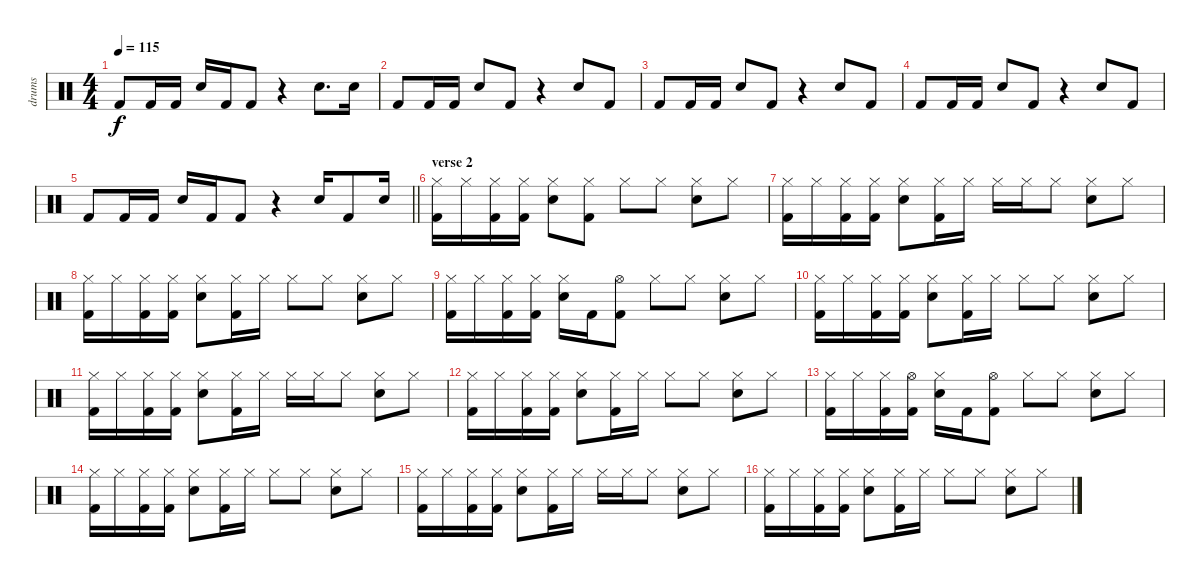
\track ("drums" "drums") {instrument percussion}
\staff {score}
\articulation defaults
\ts (4 4)
\tempo 115
\clef neutral
\ks c "Kick (hit) 2".8{dy f} "Kick (hit) 2".16 "Kick (hit) 2".16 "Snare (hit) 2".16 "Kick (hit) 2".16 "Kick (hit) 2".8
r.4 "Snare (hit) 2".8{d} "Snare (hit) 2".16 |
"Kick (hit) 2".8 "Kick (hit) 2".16 "Kick (hit) 2".16 "Snare (hit) 2".8 "Kick (hit) 2".8 r.4 "Snare (hit) 2".8 "Kick (hit) 2".8 |
"Kick (hit) 2".8 "Kick (hit) 2".16 "Kick (hit) 2".16 "Snare (hit) 2".8 "Kick (hit) 2".8 r.4 "Snare (hit) 2".8 "Kick (hit) 2".8 |
"Kick (hit) 2".8 "Kick (hit) 2".16 "Kick (hit) 2".16 "Snare (hit) 2".8 "Kick (hit) 2".8 r.4 "Snare (hit) 2".8 "Kick (hit) 2".8 |
\barLineRight lightlight "Kick (hit) 2".8 "Kick (hit) 2".16 "Kick (hit) 2".16 "Snare (hit) 2".16 "Kick (hit) 2".16 "Kick (hit) 2".8
r.4 "Snare (hit) 2".16 "Kick (hit) 2".8 "Snare (hit) 2".16 |
\section ("" "verse 2")
("Hi-Hat (closed)" "Kick (hit) 2").16 "Hi-Hat (closed)".16 ("Hi-Hat (closed)" "Kick (hit) 2").16 ("Hi-Hat (closed)" "Kick (hit) 2").16 ("Hi-Hat (closed)" "Snare (hit) 2").8 ("Hi-Hat (closed)" "Kick (hit) 2").8 "Hi-Hat (closed)".8 "Hi-Hat (closed)".8 ("Hi-Hat (closed)" "Snare (hit) 2").8 "Hi-Hat (closed)".8 |
("Hi-Hat (closed)" "Kick (hit) 2").16 "Hi-Hat (closed)".16 ("Hi-Hat (closed)" "Kick (hit) 2").16 ("Hi-Hat (closed)" "Kick (hit) 2").16 ("Hi-Hat (closed)" "Snare (hit) 2").8 ("Hi-Hat (closed)" "Kick (hit) 2").16 "Hi-Hat (closed)".16 "Hi-Hat (closed)".16 "Hi-Hat (closed)".16 "Hi-Hat (closed)".8 ("Hi-Hat (closed)" "Snare (hit) 2").8 "Hi-Hat (closed)".8 |
("Hi-Hat (closed)" "Kick (hit) 2").16 "Hi-Hat (closed)".16 ("Hi-Hat (closed)" "Kick (hit) 2").16 ("Hi-Hat (closed)" "Kick (hit) 2").16 ("Hi-Hat (closed)" "Snare (hit) 2").8 ("Hi-Hat (closed)" "Kick (hit) 2").16 "Hi-Hat (closed)".16 "Hi-Hat (closed)".8 "Hi-Hat (closed)".8 ("Hi-Hat (closed)" "Snare (hit) 2").8 "Hi-Hat (closed)".8 |
("Hi-Hat (closed)" "Kick (hit) 2").16 "Hi-Hat (closed)".16 ("Hi-Hat (closed)" "Kick (hit) 2").16 ("Hi-Hat (closed)" "Kick (hit) 2").16 ("Hi-Hat (closed)" "Snare (hit) 2").16 "Kick (hit) 2".16 ("Hi-Hat (open)" "Kick (hit) 2").8 "Hi-Hat (closed)".8 "Hi-Hat (closed)".8 ("Hi-Hat (closed)" "Snare (hit) 2").8 "Hi-Hat (closed)".8 |
("Hi-Hat (closed)" "Kick (hit) 2").16 "Hi-Hat (closed)".16 ("Hi-Hat (closed)" "Kick (hit) 2").16 ("Hi-Hat (closed)" "Kick (hit) 2").16 ("Hi-Hat (closed)" "Snare (hit) 2").8 ("Hi-Hat (closed)" "Kick (hit) 2").16 "Hi-Hat (closed)".16 "Hi-Hat (closed)".8 "Hi-Hat (closed)".8 ("Hi-Hat (closed)" "Snare (hit) 2").8 "Hi-Hat (closed)".8 |
("Hi-Hat (closed)" "Kick (hit) 2").16 "Hi-Hat (closed)".16 ("Hi-Hat (closed)" "Kick (hit) 2").16 ("Hi-Hat (closed)" "Kick (hit) 2").16 ("Hi-Hat (closed)" "Snare (hit) 2").8 ("Hi-Hat (closed)" "Kick (hit) 2").16 "Hi-Hat (closed)".16 "Hi-Hat (closed)".16 "Hi-Hat (closed)".16 "Hi-Hat (closed)".8 ("Hi-Hat (closed)" "Snare (hit) 2").8 "Hi-Hat (closed)".8 |
("Hi-Hat (closed)" "Kick (hit) 2").16 "Hi-Hat (closed)".16 ("Hi-Hat (closed)" "Kick (hit) 2").16 ("Hi-Hat (closed)" "Kick (hit) 2").16 ("Hi-Hat (closed)" "Snare (hit) 2").8 ("Hi-Hat (closed)" "Kick (hit) 2").16 "Hi-Hat (closed)".16 "Hi-Hat (closed)".8 "Hi-Hat (closed)".8 ("Hi-Hat (closed)" "Snare (hit) 2").8 "Hi-Hat (closed)".8 |
("Hi-Hat (closed)" "Kick (hit) 2").16 "Hi-Hat (closed)".16 ("Hi-Hat (closed)" "Kick (hit) 2").16 ("Hi-Hat (open)" "Kick (hit) 2").16 ("Hi-Hat (closed)" "Snare (hit) 2").16 "Kick (hit) 2".16 ("Hi-Hat (open)" "Kick (hit) 2").8 "Hi-Hat (closed)".8 "Hi-Hat (closed)".8 ("Hi-Hat (closed)" "Snare (hit) 2").8 "Hi-Hat (closed)".8 |
("Hi-Hat (closed)" "Kick (hit) 2").16 "Hi-Hat (closed)".16 ("Hi-Hat (closed)" "Kick (hit) 2").16 ("Hi-Hat (closed)" "Kick (hit) 2").16 ("Hi-Hat (closed)" "Snare (hit) 2").8 ("Hi-Hat (closed)" "Kick (hit) 2").16 "Hi-Hat (closed)".16 "Hi-Hat (closed)".8 "Hi-Hat (closed)".8 ("Hi-Hat (closed)" "Snare (hit) 2").8 "Hi-Hat (closed)".8 |
("Hi-Hat (closed)" "Kick (hit) 2").16 "Hi-Hat (closed)".16 ("Hi-Hat (closed)" "Kick (hit) 2").16 ("Hi-Hat (closed)" "Kick (hit) 2").16 ("Hi-Hat (closed)" "Snare (hit) 2").8 ("Hi-Hat (closed)" "Kick (hit) 2").16 "Hi-Hat (closed)".16 "Hi-Hat (closed)".16 "Hi-Hat (closed)".16 "Hi-Hat (closed)".8 ("Hi-Hat (closed)" "Snare (hit) 2").8 "Hi-Hat (closed)".8 |
("Hi-Hat (closed)" "Kick (hit) 2").16 "Hi-Hat (closed)".16 ("Hi-Hat (closed)" "Kick (hit) 2").16 ("Hi-Hat (closed)" "Kick (hit) 2").16 ("Hi-Hat (closed)" "Snare (hit) 2").8 ("Hi-Hat (closed)" "Kick (hit) 2").16 "Hi-Hat (closed)".16 "Hi-Hat (closed)".8 "Hi-Hat (closed)".8 ("Hi-Hat (closed)" "Snare (hit) 2").8 "Hi-Hat (closed)".8
